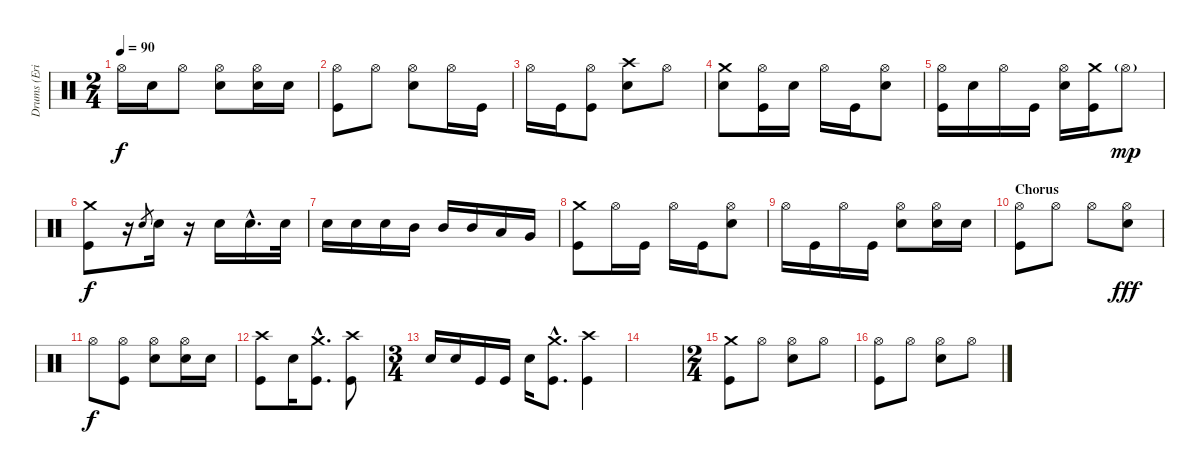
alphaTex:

\track ("Drums (Eric Singer)" "Drums (Eri") {instrument percussion}
\staff {score}
\articulation defaults
\ts (2 4)
\tempo 90
\clef neutral
\ks c "Hi-Hat (open)".16{dy f} "Electric Snare (hit)".16 "Hi-Hat (open)".8
("Hi-Hat (open)" "Electric Snare (hit)").8 ("Hi-Hat (open)" "Electric Snare (hit)").16 "Electric Snare (hit)".16 |
("Hi-Hat (open)" "Kick (hit)").8 "Hi-Hat (open)".8 ("Hi-Hat (open)" "Electric Snare (hit)").8 "Hi-Hat (open)".16 "Kick (hit)".16 |
"Hi-Hat (open)".16 "Kick (hit)".16 ("Hi-Hat (open)" "Kick (hit)").8 ("Crash high (hit)" "Electric Snare (hit)").8 "Hi-Hat (open)".8 |
("Crash medium (hit)" "Electric Snare (hit)").8 ("Hi-Hat (open)" "Kick (hit)").16 "Electric Snare (hit)".16 "Hi-Hat (open)".16 "Kick (hit)".16 ("Hi-Hat (open)" "Electric Snare (hit)").8 |
("Hi-Hat (open)" "Kick (hit)").16 "Electric Snare (hit)".16 "Hi-Hat (open)".16 "Kick (hit)".16 ("Hi-Hat (open)" "Electric Snare (hit)").16 ("Crash medium (hit)" "Kick (hit)").16 "Hi-Hat (open)"{g}.8{dy mp} |
("Crash medium (hit)" "Kick (hit)").8{dy f} r.16 "Electric Snare (hit)".8{gr} "Electric Snare (hit)".16 r.16 "Electric Snare (hit)".16 "Electric Snare (hit)"{hac}.16{d} "Electric Snare (hit)".32 |
"Electric Snare (hit)".16 "Electric Snare (hit)".16 "Electric Snare (hit)".16 "Mid Tom (hit)".16 "Mid Tom (hit)".16 "Mid Tom (hit)".16 "Low Tom (hit)".16 "Very Low Tom (hit)".16 |
("Crash medium (hit)" "Kick (hit)").8 "Hi-Hat (open)".16 "Kick (hit)".16 "Hi-Hat (open)".16 "Kick (hit)".16 ("Hi-Hat (open)" "Electric Snare (hit)").8 |
"Hi-Hat (open)".16 "Kick (hit)".16 "Hi-Hat (open)".16 "Kick (hit)".16 ("Hi-Hat (open)" "Electric Snare (hit)").8 ("Hi-Hat (open)" "Electric Snare (hit)").16 "Electric Snare (hit)".16 |
\section ("" "Chorus")
("Hi-Hat (open)" "Kick (hit)").8 "Hi-Hat (open)".8 "Hi-Hat (open)".8 ("Hi-Hat (open)" "Electric Snare (hit)").8{dy fff} |
"Hi-Hat (open)".8{dy f} ("Hi-Hat (open)" "Kick (hit)").8 ("Hi-Hat (open)" "Electric Snare (hit)").8 ("Hi-Hat (open)" "Electric Snare (hit)").16 "Electric Snare (hit)".16 |
("Crash high (hit)" "Kick (hit)").8 "Electric Snare (hit)".16 ("Crash medium (hit)"{hac} "Kick (hit)"{hac}).8{d} ("Crash high (hit)" "Kick (hit)").8 |
\ts (3 4)
"Electric Snare (hit)".16 "Electric Snare (hit)".16 "Kick (hit)".16 "Kick (hit)".16 "Electric Snare (hit)".16 ("Crash medium (hit)"{hac} "Kick (hit)"{hac}).8{d} ("Crash high (hit)" "Kick (hit)").4 |
|
\ts (2 4)
("Crash medium (hit)" "Kick (hit)").8 "Hi-Hat (open)".8 ("Hi-Hat (open)" "Electric Snare (hit)").8 "Hi-Hat (open)".8 |
("Hi-Hat (open)" "Kick (hit)").8 "Hi-Hat (open)".8 ("Hi-Hat (open)" "Electric Snare (hit)").8 "Hi-Hat (open)".8
